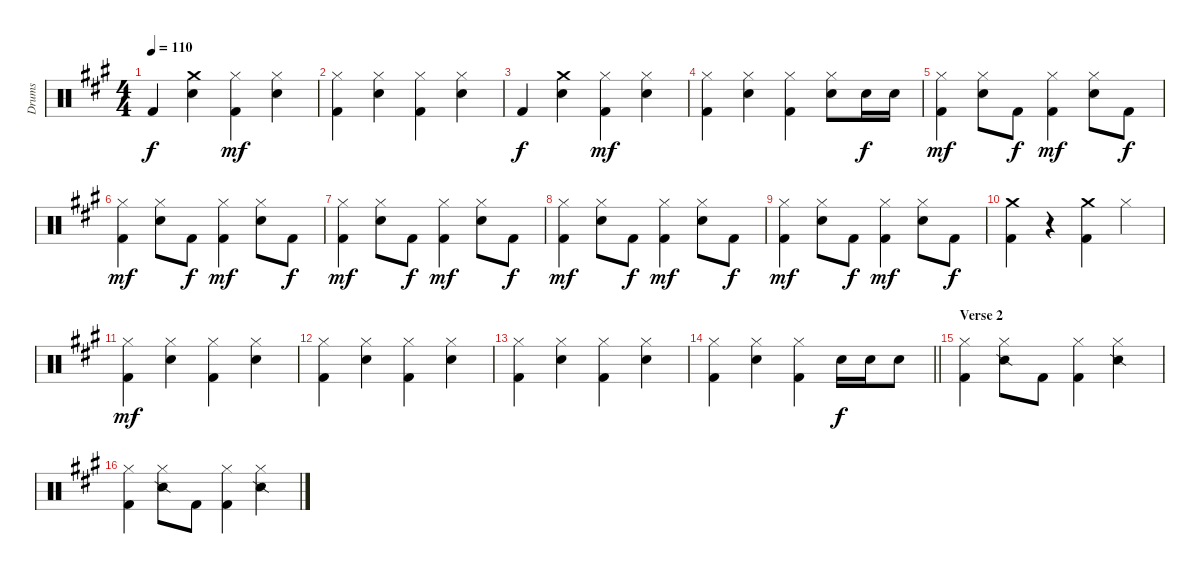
\track ("Drums" "Drums") {instrument percussion}
\staff {score}
\articulation defaults
\ts (4 4)
\tempo 110
\clef neutral
\ks a "Kick (hit) 2".4{dy f}
("Crash medium (hit)" "Snare (hit) 2").4 ("Hi-Hat (closed)" "Kick (hit) 2").4{dy mf} ("Hi-Hat (closed)" "Snare (hit) 2").4 |
("Hi-Hat (closed)" "Kick (hit) 2").4 ("Hi-Hat (closed)" "Snare (hit) 2").4 ("Hi-Hat (closed)" "Kick (hit) 2").4 ("Hi-Hat (closed)" "Snare (hit) 2").4 |
"Kick (hit) 2".4{dy f} ("Crash medium (hit)" "Snare (hit) 2").4 ("Hi-Hat (closed)" "Kick (hit) 2").4{dy mf} ("Hi-Hat (closed)" "Snare (hit) 2").4 |
("Hi-Hat (closed)" "Kick (hit) 2").4 ("Hi-Hat (closed)" "Snare (hit) 2").4 ("Hi-Hat (closed)" "Kick (hit) 2").4 ("Hi-Hat (closed)" "Snare (hit) 2").8 "Snare (hit) 2".16{dy f} "Snare (hit) 2".16 |
("Hi-Hat (closed)" "Kick (hit) 2").4{dy mf} ("Hi-Hat (closed)" "Snare (hit) 2").8 "Kick (hit) 2".8{dy f} ("Hi-Hat (closed)" "Kick (hit) 2").4{dy mf} ("Hi-Hat (closed)" "Snare (hit) 2").8 "Kick (hit) 2".8{dy f} |
("Hi-Hat (closed)" "Kick (hit) 2").4{dy mf} ("Hi-Hat (closed)" "Snare (hit) 2").8 "Kick (hit) 2".8{dy f} ("Hi-Hat (closed)" "Kick (hit) 2").4{dy mf} ("Hi-Hat (closed)" "Snare (hit) 2").8 "Kick (hit) 2".8{dy f} |
("Hi-Hat (closed)" "Kick (hit) 2").4{dy mf} ("Hi-Hat (closed)" "Snare (hit) 2").8 "Kick (hit) 2".8{dy f} ("Hi-Hat (closed)" "Kick (hit) 2").4{dy mf} ("Hi-Hat (closed)" "Snare (hit) 2").8 "Kick (hit) 2".8{dy f} |
("Hi-Hat (closed)" "Kick (hit) 2").4{dy mf} ("Hi-Hat (closed)" "Snare (hit) 2").8 "Kick (hit) 2".8{dy f} ("Hi-Hat (closed)" "Kick (hit) 2").4{dy mf} ("Hi-Hat (closed)" "Snare (hit) 2").8 "Kick (hit) 2".8{dy f} |
("Hi-Hat (closed)" "Kick (hit) 2").4{dy mf} ("Hi-Hat (closed)" "Snare (hit) 2").8 "Kick (hit) 2".8{dy f} ("Hi-Hat (closed)" "Kick (hit) 2").4{dy mf} ("Hi-Hat (closed)" "Snare (hit) 2").8 "Kick (hit) 2".8{dy f} |
("Crash medium (hit)" "Kick (hit) 2").4 r.4 ("Crash medium (hit)" "Kick (hit) 2").4 "Hi-Hat (closed)".4 |
("Hi-Hat (closed)" "Kick (hit) 2").4{dy mf} ("Hi-Hat (closed)" "Snare (hit) 2").4 ("Hi-Hat (closed)" "Kick (hit) 2").4 ("Hi-Hat (closed)" "Snare (hit) 2").4 |
("Hi-Hat (closed)" "Kick (hit) 2").4 ("Hi-Hat (closed)" "Snare (hit) 2").4 ("Hi-Hat (closed)" "Kick (hit) 2").4 ("Hi-Hat (closed)" "Snare (hit) 2").4 |
("Hi-Hat (closed)" "Kick (hit) 2").4 ("Hi-Hat (closed)" "Snare (hit) 2").4 ("Hi-Hat (closed)" "Kick (hit) 2").4 ("Hi-Hat (closed)" "Snare (hit) 2").4 |
\barLineRight lightlight
("Hi-Hat (closed)" "Kick (hit) 2").4 ("Hi-Hat (closed)" "Snare (hit) 2").4 ("Hi-Hat (closed)" "Kick (hit) 2").4 "Snare (hit) 2".16{dy f} "Snare (hit) 2".16 "Snare (hit) 2".8 |
\section ("" "Verse 2")
("Hi-Hat (closed)" "Kick (hit) 2").4 ("Hi-Hat (closed)" "Snare (side stick) 2").8 "Kick (hit) 2".8 ("Hi-Hat (closed)" "Kick (hit) 2").4 ("Hi-Hat (closed)" "Snare (side stick) 2").4 |
("Hi-Hat (closed)" "Kick (hit) 2").4 ("Hi-Hat (closed)" "Snare (side stick) 2").8 "Kick (hit) 2".8 ("Hi-Hat (closed)" "Kick (hit) 2").4 ("Hi-Hat (closed)" "Snare (side stick) 2").4
